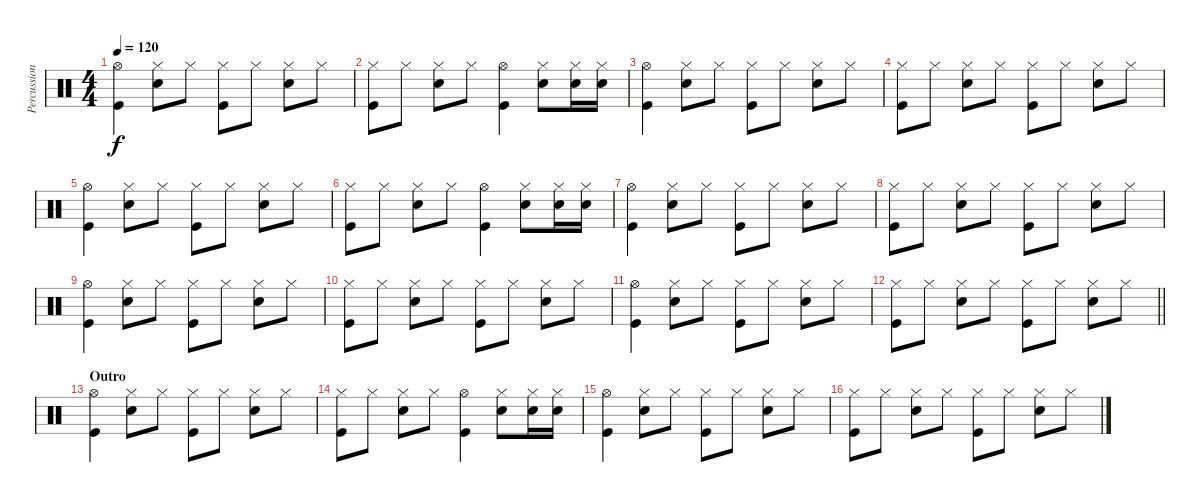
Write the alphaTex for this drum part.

\track ("Percussion" "Percussion") {instrument percussion}
\staff {score}
\articulation defaults
\ts (4 4)
\tempo 120
\clef neutral
\ks c
("Hi-Hat (open)" "Kick (hit)").4{dy f} ("Hi-Hat (closed)" "Snare (hit) 2").8 "Hi-Hat (closed)".8 ("Hi-Hat (closed)" "Kick (hit)").8 "Hi-Hat (closed)".8 ("Hi-Hat (closed)" "Snare (hit) 2").8 "Hi-Hat (closed)".8 |
("Hi-Hat (closed)" "Kick (hit)").8 "Hi-Hat (closed)".8 ("Hi-Hat (closed)" "Snare (hit) 2").8 "Hi-Hat (closed)".8 ("Hi-Hat (open)" "Kick (hit)").4 ("Hi-Hat (closed)" "Snare (hit) 2").8 ("Hi-Hat (closed)" "Snare (hit) 2").16 ("Hi-Hat (closed)" "Snare (hit) 2").16 |
("Hi-Hat (open)" "Kick (hit)").4 ("Hi-Hat (closed)" "Snare (hit) 2").8 "Hi-Hat (closed)".8 ("Hi-Hat (closed)" "Kick (hit)").8 "Hi-Hat (closed)".8 ("Hi-Hat (closed)" "Snare (hit) 2").8 "Hi-Hat (closed)".8 |
("Hi-Hat (closed)" "Kick (hit)").8 "Hi-Hat (closed)".8 ("Hi-Hat (closed)" "Snare (hit) 2").8 "Hi-Hat (closed)".8 ("Hi-Hat (closed)" "Kick (hit)").8 "Hi-Hat (closed)".8 ("Hi-Hat (closed)" "Snare (hit) 2").8 "Hi-Hat (closed)".8 |
("Hi-Hat (open)" "Kick (hit)").4 ("Hi-Hat (closed)" "Snare (hit) 2").8 "Hi-Hat (closed)".8 ("Hi-Hat (closed)" "Kick (hit)").8 "Hi-Hat (closed)".8 ("Hi-Hat (closed)" "Snare (hit) 2").8 "Hi-Hat (closed)".8 |
("Hi-Hat (closed)" "Kick (hit)").8 "Hi-Hat (closed)".8 ("Hi-Hat (closed)" "Snare (hit) 2").8 "Hi-Hat (closed)".8 ("Hi-Hat (open)" "Kick (hit)").4 ("Hi-Hat (closed)" "Snare (hit) 2").8 ("Hi-Hat (closed)" "Snare (hit) 2").16 ("Hi-Hat (closed)" "Snare (hit) 2").16 |
("Hi-Hat (open)" "Kick (hit)").4 ("Hi-Hat (closed)" "Snare (hit) 2").8 "Hi-Hat (closed)".8 ("Hi-Hat (closed)" "Kick (hit)").8 "Hi-Hat (closed)".8 ("Hi-Hat (closed)" "Snare (hit) 2").8 "Hi-Hat (closed)".8 |
("Hi-Hat (closed)" "Kick (hit)").8 "Hi-Hat (closed)".8 ("Hi-Hat (closed)" "Snare (hit) 2").8 "Hi-Hat (closed)".8 ("Hi-Hat (closed)" "Kick (hit)").8 "Hi-Hat (closed)".8 ("Hi-Hat (closed)" "Snare (hit) 2").8 "Hi-Hat (closed)".8 |
("Hi-Hat (open)" "Kick (hit)").4 ("Hi-Hat (closed)" "Snare (hit) 2").8 "Hi-Hat (closed)".8 ("Hi-Hat (closed)" "Kick (hit)").8 "Hi-Hat (closed)".8 ("Hi-Hat (closed)" "Snare (hit) 2").8 "Hi-Hat (closed)".8 |
("Hi-Hat (closed)" "Kick (hit)").8 "Hi-Hat (closed)".8 ("Hi-Hat (closed)" "Snare (hit) 2").8 "Hi-Hat (closed)".8 ("Hi-Hat (closed)" "Kick (hit)").8 "Hi-Hat (closed)".8 ("Hi-Hat (closed)" "Snare (hit) 2").8 "Hi-Hat (closed)".8 |
("Hi-Hat (open)" "Kick (hit)").4 ("Hi-Hat (closed)" "Snare (hit) 2").8 "Hi-Hat (closed)".8 ("Hi-Hat (closed)" "Kick (hit)").8 "Hi-Hat (closed)".8 ("Hi-Hat (closed)" "Snare (hit) 2").8 "Hi-Hat (closed)".8 |
\barLineRight lightlight
("Hi-Hat (closed)" "Kick (hit)").8 "Hi-Hat (closed)".8 ("Hi-Hat (closed)" "Snare (hit) 2").8 "Hi-Hat (closed)".8 ("Hi-Hat (closed)" "Kick (hit)").8 "Hi-Hat (closed)".8 ("Hi-Hat (closed)" "Snare (hit) 2").8 "Hi-Hat (closed)".8 |
\section ("" "Outro")
("Hi-Hat (open)" "Kick (hit)").4 ("Hi-Hat (closed)" "Snare (hit) 2").8 "Hi-Hat (closed)".8 ("Hi-Hat (closed)" "Kick (hit)").8 "Hi-Hat (closed)".8 ("Hi-Hat (closed)" "Snare (hit) 2").8 "Hi-Hat (closed)".8 |
("Hi-Hat (closed)" "Kick (hit)").8 "Hi-Hat (closed)".8 ("Hi-Hat (closed)" "Snare (hit) 2").8 "Hi-Hat (closed)".8 ("Hi-Hat (open)" "Kick (hit)").4 ("Hi-Hat (closed)" "Snare (hit) 2").8 ("Hi-Hat (closed)" "Snare (hit) 2").16 ("Hi-Hat (closed)" "Snare (hit) 2").16 |
("Hi-Hat (open)" "Kick (hit)").4 ("Hi-Hat (closed)" "Snare (hit) 2").8 "Hi-Hat (closed)".8 ("Hi-Hat (closed)" "Kick (hit)").8 "Hi-Hat (closed)".8 ("Hi-Hat (closed)" "Snare (hit) 2").8 "Hi-Hat (closed)".8 |
("Hi-Hat (closed)" "Kick (hit)").8 "Hi-Hat (closed)".8 ("Hi-Hat (closed)" "Snare (hit) 2").8 "Hi-Hat (closed)".8 ("Hi-Hat (closed)" "Kick (hit)").8 "Hi-Hat (closed)".8 ("Hi-Hat (closed)" "Snare (hit) 2").8 "Hi-Hat (closed)".8
